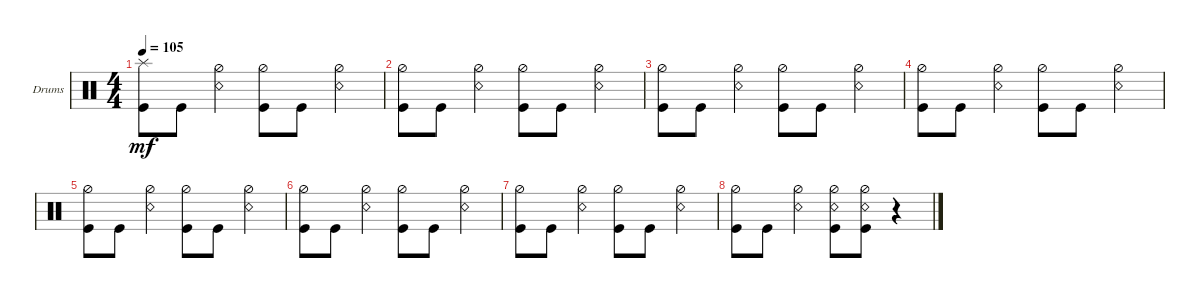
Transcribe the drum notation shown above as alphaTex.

\defaultSystemsLayout 4
\bracketExtendMode groupsimilarinstruments
\firstSystemTrackNameOrientation horizontal
\otherSystemsTrackNameOrientation horizontal
\track ("Drumkit" "Drums") {instrument percussion}
\staff {score}
\articulation defaults
\ts (4 4)
\tempo 105
\clef neutral
\ks c
("Kick (hit)" "Splash (hit)").8{dy mf} "Kick (hit)".8 ("Snare (rim shot)" "Hi-Hat (half)").4 ("Hi-Hat (half)" "Kick (hit)").8 "Kick (hit)".8 ("Snare (rim shot)" "Hi-Hat (half)").4 |
("Hi-Hat (half)" "Kick (hit)").8 "Kick (hit)".8 ("Snare (rim shot)" "Hi-Hat (half)").4 ("Hi-Hat (half)" "Kick (hit)").8 "Kick (hit)".8 ("Snare (rim shot)" "Hi-Hat (half)").4 |
("Hi-Hat (half)" "Kick (hit)").8 "Kick (hit)".8 ("Snare (rim shot)" "Hi-Hat (half)").4 ("Hi-Hat (half)" "Kick (hit)").8 "Kick (hit)".8 ("Snare (rim shot)" "Hi-Hat (half)").4 |
("Hi-Hat (half)" "Kick (hit)").8 "Kick (hit)".8 ("Snare (rim shot)" "Hi-Hat (half)").4 ("Hi-Hat (half)" "Kick (hit)").8 "Kick (hit)".8 ("Snare (rim shot)" "Hi-Hat (half)").4 |
("Hi-Hat (half)" "Kick (hit)").8 "Kick (hit)".8 ("Snare (rim shot)" "Hi-Hat (half)").4 ("Hi-Hat (half)" "Kick (hit)").8 "Kick (hit)".8 ("Snare (rim shot)" "Hi-Hat (half)").4 |
("Hi-Hat (half)" "Kick (hit)").8 "Kick (hit)".8 ("Snare (rim shot)" "Hi-Hat (half)").4 ("Hi-Hat (half)" "Kick (hit)").8 "Kick (hit)".8 ("Snare (rim shot)" "Hi-Hat (half)").4 |
("Hi-Hat (half)" "Kick (hit)").8 "Kick (hit)".8 ("Snare (rim shot)" "Hi-Hat (half)").4 ("Hi-Hat (half)" "Kick (hit)").8 "Kick (hit)".8 ("Snare (rim shot)" "Hi-Hat (half)").4 |
("Hi-Hat (half)" "Kick (hit)").8 "Kick (hit)".8 ("Snare (rim shot)" "Hi-Hat (half)").4 ("Hi-Hat (half)" "Kick (hit)" "Snare (rim shot)").8 ("Kick (hit)" "Snare (rim shot)" "Hi-Hat (half)").8 r.4
